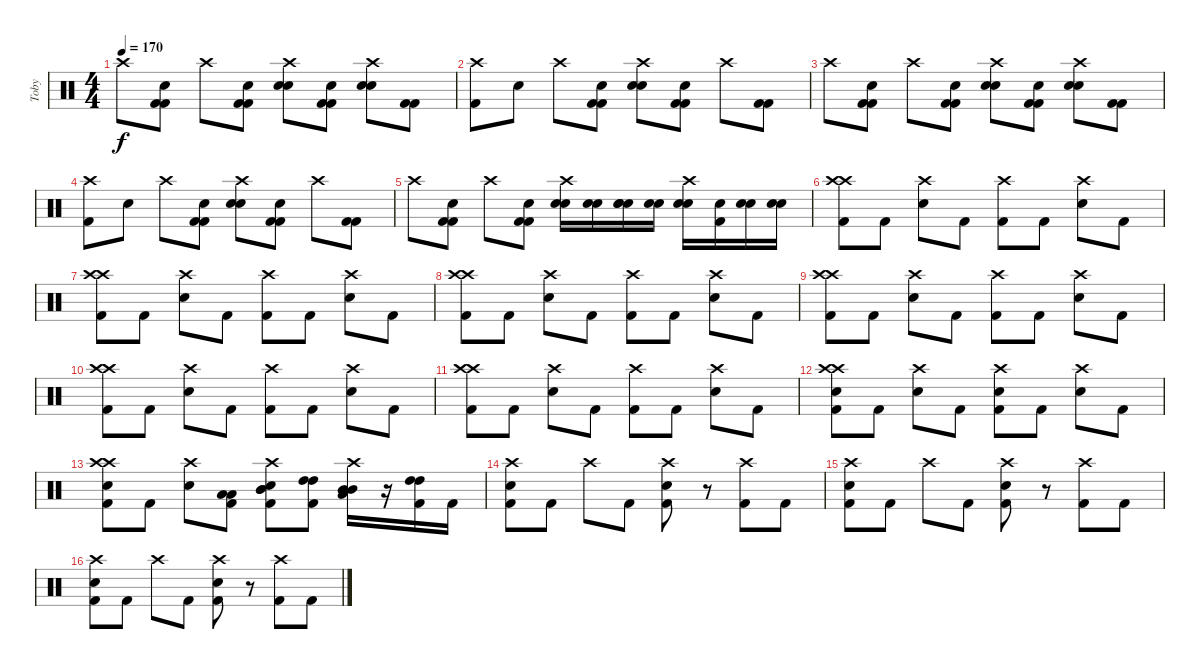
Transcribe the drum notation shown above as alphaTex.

\track ("Toby" "Toby") {instrument percussion}
\staff {score}
\articulation defaults
\ts (4 4)
\tempo 170
\clef neutral
\ks c "Crash high (hit)".8{dy f}
("Snare (hit)" "Kick (hit) 2" "Kick (hit) 2").8 "Crash high (hit)".8 ("Snare (hit)" "Kick (hit) 2" "Kick (hit) 2").8 ("Crash high (hit)" "Electric Snare (hit)" "Electric Snare (hit)").8 ("Snare (hit)" "Kick (hit) 2" "Kick (hit) 2").8 ("Crash high (hit)" "Electric Snare (hit)" "Electric Snare (hit)").8 ("Kick (hit) 2" "Kick (hit) 2").8 |
("Crash high (hit)" "Kick (hit) 2").8 "Snare (hit)".8 "Crash high (hit)".8 ("Snare (hit)" "Kick (hit) 2" "Kick (hit) 2").8 ("Crash high (hit)" "Electric Snare (hit)" "Electric Snare (hit)").8 ("Snare (hit)" "Kick (hit) 2" "Kick (hit) 2").8 "Crash high (hit)".8 ("Kick (hit) 2" "Kick (hit) 2").8 |
"Crash high (hit)".8 ("Snare (hit)" "Kick (hit) 2" "Kick (hit) 2").8 "Crash high (hit)".8 ("Snare (hit)" "Kick (hit) 2" "Kick (hit) 2").8 ("Crash high (hit)" "Electric Snare (hit)" "Electric Snare (hit)").8 ("Snare (hit)" "Kick (hit) 2" "Kick (hit) 2").8 ("Crash high (hit)" "Electric Snare (hit)" "Electric Snare (hit)").8 ("Kick (hit) 2" "Kick (hit) 2").8 |
("Crash high (hit)" "Kick (hit) 2").8 "Snare (hit)".8 "Crash high (hit)".8 ("Snare (hit)" "Kick (hit) 2" "Kick (hit) 2").8 ("Crash high (hit)" "Electric Snare (hit)" "Electric Snare (hit)").8 ("Snare (hit)" "Kick (hit) 2" "Kick (hit) 2").8 "Crash high (hit)".8 ("Kick (hit) 2" "Kick (hit) 2").8 |
"Crash high (hit)".8 ("Snare (hit)" "Kick (hit) 2" "Kick (hit) 2").8 "Crash high (hit)".8 ("Snare (hit)" "Kick (hit) 2" "Kick (hit) 2").8 ("Crash high (hit)" "Electric Snare (hit)" "Electric Snare (hit)").16 ("Electric Snare (hit)" "Electric Snare (hit)").16 ("Snare (hit)" "Electric Snare (hit)" "Electric Snare (hit)").16 ("Electric Snare (hit)" "Electric Snare (hit)").16 ("Crash high (hit)" "Electric Snare (hit)" "Electric Snare (hit)").16 ("Electric Snare (hit)" "Kick (hit) 2").16 ("Electric Snare (hit)" "Electric Snare (hit)").16 ("Electric Snare (hit)" "Electric Snare (hit)").16 |
("Crash high (hit)" "Crash high (hit)" "Kick (hit) 2").8 "Kick (hit) 2".8 ("Crash high (hit)" "Electric Snare (hit)").8 "Kick (hit) 2".8 ("Crash high (hit)" "Kick (hit) 2").8 "Kick (hit) 2".8 ("Crash high (hit)" "Electric Snare (hit)").8 "Kick (hit) 2".8 |
("Crash high (hit)" "Crash high (hit)" "Kick (hit) 2").8 "Kick (hit) 2".8 ("Crash high (hit)" "Electric Snare (hit)").8 "Kick (hit) 2".8 ("Crash high (hit)" "Kick (hit) 2").8 "Kick (hit) 2".8 ("Crash high (hit)" "Electric Snare (hit)").8 "Kick (hit) 2".8 |
("Crash high (hit)" "Crash high (hit)" "Kick (hit) 2").8 "Kick (hit) 2".8 ("Crash high (hit)" "Electric Snare (hit)").8 "Kick (hit) 2".8 ("Crash high (hit)" "Kick (hit) 2").8 "Kick (hit) 2".8 ("Crash high (hit)" "Electric Snare (hit)").8 "Kick (hit) 2".8 |
("Crash high (hit)" "Crash high (hit)" "Kick (hit) 2").8 "Kick (hit) 2".8 ("Crash high (hit)" "Electric Snare (hit)").8 "Kick (hit) 2".8 ("Crash high (hit)" "Kick (hit) 2").8 "Kick (hit) 2".8 ("Crash high (hit)" "Electric Snare (hit)").8 "Kick (hit) 2".8 |
("Crash high (hit)" "Crash high (hit)" "Kick (hit) 2").8 "Kick (hit) 2".8 ("Crash high (hit)" "Electric Snare (hit)").8 "Kick (hit) 2".8 ("Crash high (hit)" "Kick (hit) 2").8 "Kick (hit) 2".8 ("Crash high (hit)" "Electric Snare (hit)").8 "Kick (hit) 2".8 |
("Crash high (hit)" "Crash high (hit)" "Kick (hit) 2").8 "Kick (hit) 2".8 ("Crash high (hit)" "Electric Snare (hit)").8 "Kick (hit) 2".8 ("Crash high (hit)" "Kick (hit) 2").8 "Kick (hit) 2".8 ("Crash high (hit)" "Electric Snare (hit)").8 "Kick (hit) 2".8 |
("Crash high (hit)" "Crash high (hit)" "Electric Snare (hit)" "Kick (hit) 2").8 "Kick (hit) 2".8 ("Crash high (hit)" "Electric Snare (hit)").8 "Kick (hit) 2".8 ("Crash high (hit)" "Electric Snare (hit)" "Kick (hit) 2").8 "Kick (hit) 2".8 ("Crash high (hit)" "Electric Snare (hit)").8 "Kick (hit) 2".8 |
("Crash high (hit)" "Crash high (hit)" "Electric Snare (hit)" "Kick (hit) 2").8 "Kick (hit) 2".8 ("Crash high (hit)" "Electric Snare (hit)").8 ("Low Tom (hit)" "Low Tom (hit)" "Kick (hit) 2").8 ("Mid Tom (hit)" "Crash high (hit)" "Mid Tom (hit)" "Electric Snare (hit)" "Kick (hit) 2").8 ("High Tom (hit)" "High Tom (hit)" "Kick (hit) 2").8 ("Mid Tom (hit)" "Crash high (hit)" "Mid Tom (hit)" "Low Tom (hit)").16 r.16 ("High Tom (hit)" "High Tom (hit)" "Kick (hit) 2").16 "Kick (hit) 2".16 |
("Crash high (hit)" "Electric Snare (hit)" "Kick (hit) 2").8 "Kick (hit) 2".8 "Crash high (hit)".8 "Kick (hit) 2".8 ("Crash high (hit)" "Electric Snare (hit)" "Kick (hit) 2").8 r.8 ("Crash high (hit)" "Kick (hit) 2").8 "Kick (hit) 2".8 |
("Crash high (hit)" "Electric Snare (hit)" "Kick (hit) 2").8 "Kick (hit) 2".8 "Crash high (hit)".8 "Kick (hit) 2".8 ("Crash high (hit)" "Electric Snare (hit)" "Kick (hit) 2").8 r.8 ("Crash high (hit)" "Kick (hit) 2").8 "Kick (hit) 2".8 |
("Crash high (hit)" "Electric Snare (hit)" "Kick (hit) 2").8 "Kick (hit) 2".8 "Crash high (hit)".8 "Kick (hit) 2".8 ("Crash high (hit)" "Electric Snare (hit)" "Kick (hit) 2").8 r.8 ("Crash high (hit)" "Kick (hit) 2").8 "Kick (hit) 2".8
